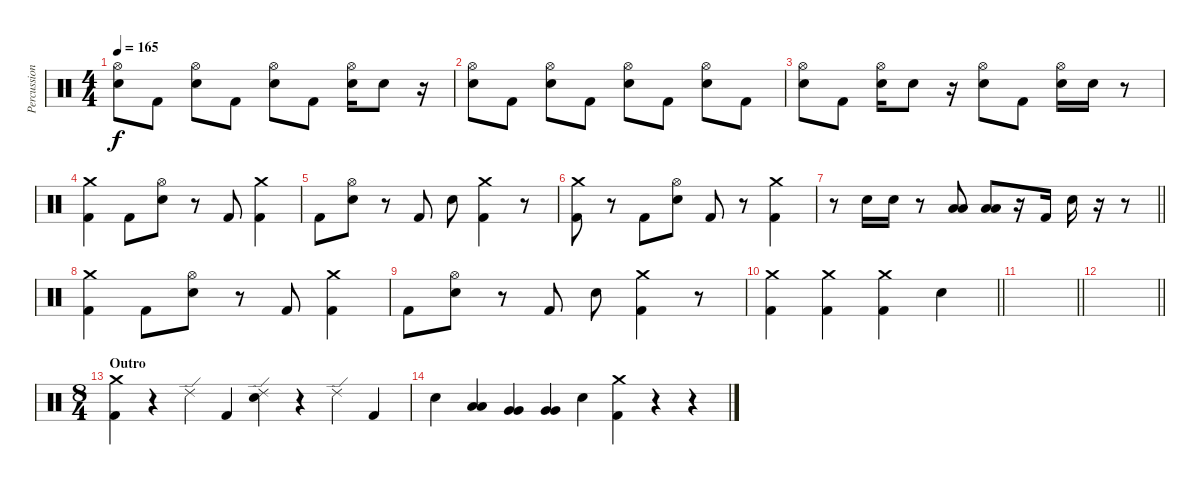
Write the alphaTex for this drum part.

\track ("Percussion" "Percussion") {instrument percussion}
\staff {score}
\articulation defaults
\ts (4 4)
\tempo 165
\clef neutral
\ks c
("Hi-Hat (open)" "Electric Snare (hit)").8{dy f} "Kick (hit) 2".8 ("Hi-Hat (open)" "Electric Snare (hit)").8 "Kick (hit) 2".8 ("Hi-Hat (open)" "Electric Snare (hit)").8 "Kick (hit) 2".8 ("Hi-Hat (open)" "Electric Snare (hit)").16 "Electric Snare (hit)".8 r.16 |
("Hi-Hat (open)" "Electric Snare (hit)").8 "Kick (hit) 2".8 ("Hi-Hat (open)" "Electric Snare (hit)").8 "Kick (hit) 2".8 ("Hi-Hat (open)" "Electric Snare (hit)").8 "Kick (hit) 2".8 ("Hi-Hat (open)" "Electric Snare (hit)").8 "Kick (hit) 2".8 |
("Hi-Hat (open)" "Electric Snare (hit)").8 "Kick (hit) 2".8 ("Hi-Hat (open)" "Electric Snare (hit)").16 "Electric Snare (hit)".8 r.16 ("Hi-Hat (open)" "Electric Snare (hit)").8 "Kick (hit) 2".8 ("Hi-Hat (open)" "Electric Snare (hit)").16 "Electric Snare (hit)".16 r.8 |
("Crash medium (hit)" "Kick (hit) 2").4 "Kick (hit) 2".8 ("Hi-Hat (open)" "Electric Snare (hit)").8 r.8 "Kick (hit) 2".8 ("Crash medium (hit)" "Kick (hit) 2").4 |
"Kick (hit) 2".8 ("Hi-Hat (open)" "Electric Snare (hit)").8 r.8 "Kick (hit) 2".8 "Electric Snare (hit)".8 ("Crash medium (hit)" "Kick (hit) 2").4 r.8 |
("Crash medium (hit)" "Kick (hit) 2").8 r.8 "Kick (hit) 2".8 ("Hi-Hat (open)" "Electric Snare (hit)").8 "Kick (hit) 2".8 r.8 ("Crash medium (hit)" "Kick (hit) 2").4 |
\barLineRight lightlight
r.8 "Electric Snare (hit)".16 "Electric Snare (hit)".16 r.8 ("Low Tom (hit)" "Low Tom (hit)").8 ("Low Tom (hit)" "Low Tom (hit)").8 r.16 "Kick (hit) 2".16 "Electric Snare (hit)".16 r.16 r.8 |
("Crash medium (hit)" "Kick (hit) 2").4 "Kick (hit) 2".8 ("Hi-Hat (open)" "Electric Snare (hit)").8 r.8 "Kick (hit) 2".8 ("Crash medium (hit)" "Kick (hit) 2").4 |
"Kick (hit) 2".8 ("Hi-Hat (open)" "Electric Snare (hit)").8 r.8 "Kick (hit) 2".8 "Electric Snare (hit)".8 ("Crash medium (hit)" "Kick (hit) 2").4 r.8 |
\barLineRight lightlight
("Crash medium (hit)" "Kick (hit) 2").4 ("Crash medium (hit)" "Kick (hit) 2").4 ("Crash medium (hit)" "Kick (hit) 2").4 "Electric Snare (hit)".4 |
\barLineRight lightlight
|
\barLineRight lightlight
|
\ts (8 4)
\section ("" "Outro")
("Crash medium (hit)" "Kick (hit) 2").4 r.4 "Ride (edge) 2".4 "Kick (hit) 2".4 ("Ride (edge) 2" "Electric Snare (hit)").4 r.4 "Ride (edge) 2".4 "Kick (hit) 2".4 |
"Electric Snare (hit)".4 ("Low Tom (hit)" "Low Tom (hit)").4 ("Very Low Tom (hit)" "Very Low Tom (hit)").4 ("Very Low Tom (hit)" "Very Low Tom (hit)").4 "Electric Snare (hit)".4 ("Crash medium (hit)" "Kick (hit) 2").4 r.4 r.4
